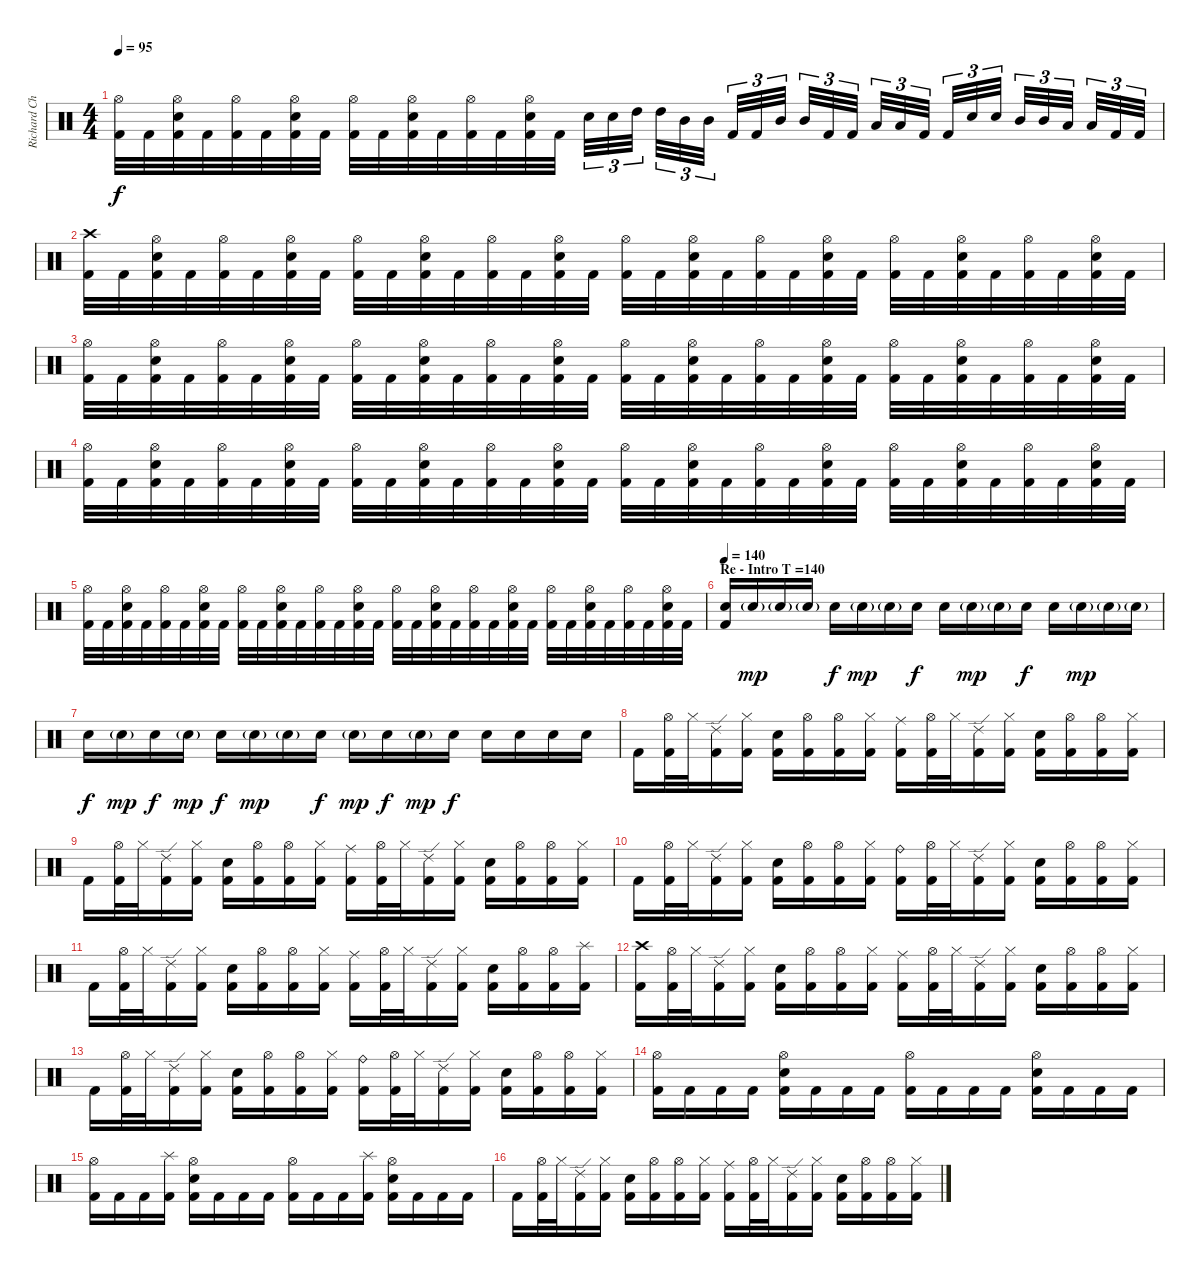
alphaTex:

\track ("Richard Christy" "Richard Ch") {instrument percussion}
\staff {score}
\articulation defaults
\ts (4 4)
\tempo 95
\clef neutral
\ks c
("Hi-Hat (open)" "Kick (hit) 2").32{dy f} "Kick (hit) 2".32 ("Hi-Hat (open)" "Electric Snare (hit)" "Kick (hit) 2").32 "Kick (hit) 2".32 ("Hi-Hat (open)" "Kick (hit) 2").32 "Kick (hit) 2".32 ("Hi-Hat (open)" "Electric Snare (hit)" "Kick (hit) 2").32 "Kick (hit) 2".32 ("Hi-Hat (open)" "Kick (hit) 2").32 "Kick (hit) 2".32 ("Hi-Hat (open)" "Electric Snare (hit)" "Kick (hit) 2").32 "Kick (hit) 2".32 ("Hi-Hat (open)" "Kick (hit) 2").32 "Kick (hit) 2".32 ("Hi-Hat (open)" "Electric Snare (hit)" "Kick (hit) 2").32 "Kick (hit) 2".32 "Electric Snare (hit)".32{tu (3 2)} "Electric Snare (hit)".32{tu (3 2)} "High Tom (hit)".32{tu (3 2)} "High Tom (hit)".32{tu (3 2)} "Mid Tom (hit)".32{tu (3 2)} "Mid Tom (hit)".32{tu (3 2)} "Kick (hit) 2".32{tu (3 2)} "Kick (hit) 2".32{tu (3 2)} "Mid Tom (hit)".32{tu (3 2)} "Mid Tom (hit)".32{tu (3 2)} "Kick (hit) 2".32{tu (3 2)} "Kick (hit) 2".32{tu (3 2)} "Low Tom (hit)".32{tu (3 2)} "Low Tom (hit)".32{tu (3 2)} "Kick (hit) 2".32{tu (3 2)} "Kick (hit) 2".32{tu (3 2)} "Electric Snare (hit)".32{tu (3 2)} "Electric Snare (hit)".32{tu (3 2)} "Mid Tom (hit)".32{tu (3 2)} "Mid Tom (hit)".32{tu (3 2)} "Low Tom (hit)".32{tu (3 2)} "Low Tom (hit)".32{tu (3 2)} "Kick (hit) 2".32{tu (3 2)} "Kick (hit) 2".32{tu (3 2)} |
("Crash high (hit)" "Kick (hit) 2").32 "Kick (hit) 2".32 ("Hi-Hat (open)" "Electric Snare (hit)" "Kick (hit) 2").32 "Kick (hit) 2".32 ("Hi-Hat (open)" "Kick (hit) 2").32 "Kick (hit) 2".32 ("Hi-Hat (open)" "Electric Snare (hit)" "Kick (hit) 2").32 "Kick (hit) 2".32 ("Hi-Hat (open)" "Kick (hit) 2").32 "Kick (hit) 2".32 ("Hi-Hat (open)" "Electric Snare (hit)" "Kick (hit) 2").32 "Kick (hit) 2".32 ("Hi-Hat (open)" "Kick (hit) 2").32 "Kick (hit) 2".32 ("Hi-Hat (open)" "Electric Snare (hit)" "Kick (hit) 2").32 "Kick (hit) 2".32 ("Hi-Hat (open)" "Kick (hit) 2").32 "Kick (hit) 2".32 ("Hi-Hat (open)" "Electric Snare (hit)" "Kick (hit) 2").32 "Kick (hit) 2".32 ("Hi-Hat (open)" "Kick (hit) 2").32 "Kick (hit) 2".32 ("Hi-Hat (open)" "Electric Snare (hit)" "Kick (hit) 2").32 "Kick (hit) 2".32 ("Hi-Hat (open)" "Kick (hit) 2").32 "Kick (hit) 2".32 ("Hi-Hat (open)" "Electric Snare (hit)" "Kick (hit) 2").32 "Kick (hit) 2".32 ("Hi-Hat (open)" "Kick (hit) 2").32 "Kick (hit) 2".32 ("Hi-Hat (open)" "Electric Snare (hit)" "Kick (hit) 2").32 "Kick (hit) 2".32 |
("Hi-Hat (open)" "Kick (hit) 2").32 "Kick (hit) 2".32 ("Hi-Hat (open)" "Electric Snare (hit)" "Kick (hit) 2").32 "Kick (hit) 2".32 ("Hi-Hat (open)" "Kick (hit) 2").32 "Kick (hit) 2".32 ("Hi-Hat (open)" "Electric Snare (hit)" "Kick (hit) 2").32 "Kick (hit) 2".32 ("Hi-Hat (open)" "Kick (hit) 2").32 "Kick (hit) 2".32 ("Hi-Hat (open)" "Electric Snare (hit)" "Kick (hit) 2").32 "Kick (hit) 2".32 ("Hi-Hat (open)" "Kick (hit) 2").32 "Kick (hit) 2".32 ("Hi-Hat (open)" "Electric Snare (hit)" "Kick (hit) 2").32 "Kick (hit) 2".32 ("Hi-Hat (open)" "Kick (hit) 2").32 "Kick (hit) 2".32 ("Hi-Hat (open)" "Electric Snare (hit)" "Kick (hit) 2").32 "Kick (hit) 2".32 ("Hi-Hat (open)" "Kick (hit) 2").32 "Kick (hit) 2".32 ("Hi-Hat (open)" "Electric Snare (hit)" "Kick (hit) 2").32 "Kick (hit) 2".32 ("Hi-Hat (open)" "Kick (hit) 2").32 "Kick (hit) 2".32 ("Hi-Hat (open)" "Electric Snare (hit)" "Kick (hit) 2").32 "Kick (hit) 2".32 ("Hi-Hat (open)" "Kick (hit) 2").32 "Kick (hit) 2".32 ("Hi-Hat (open)" "Electric Snare (hit)" "Kick (hit) 2").32 "Kick (hit) 2".32 |
("Hi-Hat (open)" "Kick (hit) 2").32 "Kick (hit) 2".32 ("Hi-Hat (open)" "Electric Snare (hit)" "Kick (hit) 2").32 "Kick (hit) 2".32 ("Hi-Hat (open)" "Kick (hit) 2").32 "Kick (hit) 2".32 ("Hi-Hat (open)" "Electric Snare (hit)" "Kick (hit) 2").32 "Kick (hit) 2".32 ("Hi-Hat (open)" "Kick (hit) 2").32 "Kick (hit) 2".32 ("Hi-Hat (open)" "Electric Snare (hit)" "Kick (hit) 2").32 "Kick (hit) 2".32 ("Hi-Hat (open)" "Kick (hit) 2").32 "Kick (hit) 2".32 ("Hi-Hat (open)" "Electric Snare (hit)" "Kick (hit) 2").32 "Kick (hit) 2".32 ("Hi-Hat (open)" "Kick (hit) 2").32 "Kick (hit) 2".32 ("Hi-Hat (open)" "Electric Snare (hit)" "Kick (hit) 2").32 "Kick (hit) 2".32 ("Hi-Hat (open)" "Kick (hit) 2").32 "Kick (hit) 2".32 ("Hi-Hat (open)" "Electric Snare (hit)" "Kick (hit) 2").32 "Kick (hit) 2".32 ("Hi-Hat (open)" "Kick (hit) 2").32 "Kick (hit) 2".32 ("Hi-Hat (open)" "Electric Snare (hit)" "Kick (hit) 2").32 "Kick (hit) 2".32 ("Hi-Hat (open)" "Kick (hit) 2").32 "Kick (hit) 2".32 ("Hi-Hat (open)" "Electric Snare (hit)" "Kick (hit) 2").32 "Kick (hit) 2".32 |
("Hi-Hat (open)" "Kick (hit) 2").32 "Kick (hit) 2".32 ("Hi-Hat (open)" "Electric Snare (hit)" "Kick (hit) 2").32 "Kick (hit) 2".32 ("Hi-Hat (open)" "Kick (hit) 2").32 "Kick (hit) 2".32 ("Hi-Hat (open)" "Electric Snare (hit)" "Kick (hit) 2").32 "Kick (hit) 2".32 ("Hi-Hat (open)" "Kick (hit) 2").32 "Kick (hit) 2".32 ("Hi-Hat (open)" "Electric Snare (hit)" "Kick (hit) 2").32 "Kick (hit) 2".32 ("Hi-Hat (open)" "Kick (hit) 2").32 "Kick (hit) 2".32 ("Hi-Hat (open)" "Electric Snare (hit)" "Kick (hit) 2").32 "Kick (hit) 2".32 ("Hi-Hat (open)" "Kick (hit) 2").32 "Kick (hit) 2".32 ("Hi-Hat (open)" "Electric Snare (hit)" "Kick (hit) 2").32 "Kick (hit) 2".32 ("Hi-Hat (open)" "Kick (hit) 2").32 "Kick (hit) 2".32 ("Hi-Hat (open)" "Electric Snare (hit)" "Kick (hit) 2").32 "Kick (hit) 2".32 ("Hi-Hat (open)" "Kick (hit) 2").32 "Kick (hit) 2".32 ("Hi-Hat (open)" "Electric Snare (hit)" "Kick (hit) 2").32 "Kick (hit) 2".32 ("Hi-Hat (open)" "Kick (hit) 2").32 "Kick (hit) 2".32 ("Hi-Hat (open)" "Electric Snare (hit)" "Kick (hit) 2").32 "Kick (hit) 2".32 |
\section ("" "Re - Intro T =140")
\tempo 140
("Electric Snare (hit)" "Kick (hit) 2").16 "Electric Snare (hit)"{g}.16{dy mp} "Electric Snare (hit)"{g}.16 "Electric Snare (hit)"{g}.16 "Electric Snare (hit)".16{dy f} "Electric Snare (hit)"{g}.16{dy mp} "Electric Snare (hit)"{g}.16 "Electric Snare (hit)".16{dy f} "Electric Snare (hit)".16 "Electric Snare (hit)"{g}.16{dy mp} "Electric Snare (hit)"{g}.16 "Electric Snare (hit)".16{dy f} "Electric Snare (hit)".16 "Electric Snare (hit)"{g}.16{dy mp} "Electric Snare (hit)"{g}.16 "Electric Snare (hit)"{g}.16 |
"Electric Snare (hit)".16{dy f} "Electric Snare (hit)"{g}.16{dy mp} "Electric Snare (hit)".16{dy f} "Electric Snare (hit)"{g}.16{dy mp} "Electric Snare (hit)".16{dy f} "Electric Snare (hit)"{g}.16{dy mp} "Electric Snare (hit)"{g}.16 "Electric Snare (hit)".16{dy f} "Electric Snare (hit)"{g}.16{dy mp} "Electric Snare (hit)".16{dy f} "Electric Snare (hit)"{g}.16{dy mp} "Electric Snare (hit)".16{dy f} "Electric Snare (hit)".16 "Electric Snare (hit)".16 "Electric Snare (hit)".16 "Electric Snare (hit)".16 |
"Kick (hit) 2".16 ("Hi-Hat (open)" "Kick (hit) 2").32 "Hi-Hat (closed)".32 ("Ride (edge) 2" "Kick (hit) 2").16 ("Hi-Hat (closed)" "Kick (hit) 2").16 ("Electric Snare (hit)" "Kick (hit) 2").16 ("Hi-Hat (open)" "Kick (hit) 2").16 ("Hi-Hat (open)" "Kick (hit) 2").16 ("Hi-Hat (closed)" "Kick (hit) 2").16 ("Ride (middle)" "Kick (hit) 2").16 ("Hi-Hat (open)" "Kick (hit) 2").32 "Hi-Hat (closed)".32 ("Ride (edge) 2" "Kick (hit) 2").16 ("Hi-Hat (closed)" "Kick (hit) 2").16 ("Electric Snare (hit)" "Kick (hit) 2").16 ("Hi-Hat (open)" "Kick (hit) 2").16 ("Hi-Hat (open)" "Kick (hit) 2").16 ("Hi-Hat (closed)" "Kick (hit) 2").16 |
"Kick (hit) 2".16 ("Hi-Hat (open)" "Kick (hit) 2").32 "Hi-Hat (closed)".32 ("Ride (edge) 2" "Kick (hit) 2").16 ("Hi-Hat (closed)" "Kick (hit) 2").16 ("Electric Snare (hit)" "Kick (hit) 2").16 ("Hi-Hat (open)" "Kick (hit) 2").16 ("Hi-Hat (open)" "Kick (hit) 2").16 ("Hi-Hat (closed)" "Kick (hit) 2").16 ("Ride (middle)" "Kick (hit) 2").16 ("Hi-Hat (open)" "Kick (hit) 2").32 "Hi-Hat (closed)".32 ("Ride (edge) 2" "Kick (hit) 2").16 ("Hi-Hat (closed)" "Kick (hit) 2").16 ("Electric Snare (hit)" "Kick (hit) 2").16 ("Hi-Hat (open)" "Kick (hit) 2").16 ("Hi-Hat (open)" "Kick (hit) 2").16 ("Hi-Hat (closed)" "Kick (hit) 2").16 |
"Kick (hit) 2".16 ("Hi-Hat (open)" "Kick (hit) 2").32 "Hi-Hat (closed)".32 ("Ride (edge) 2" "Kick (hit) 2").16 ("Hi-Hat (closed)" "Kick (hit) 2").16 ("Electric Snare (hit)" "Kick (hit) 2").16 ("Hi-Hat (open)" "Kick (hit) 2").16 ("Hi-Hat (open)" "Kick (hit) 2").16 ("Hi-Hat (closed)" "Kick (hit) 2").16 ("Ride (bell)" "Kick (hit) 2").16 ("Hi-Hat (open)" "Kick (hit) 2").32 "Hi-Hat (closed)".32 ("Ride (edge) 2" "Kick (hit) 2").16 ("Hi-Hat (closed)" "Kick (hit) 2").16 ("Electric Snare (hit)" "Kick (hit) 2").16 ("Hi-Hat (open)" "Kick (hit) 2").16 ("Hi-Hat (open)" "Kick (hit) 2").16 ("Hi-Hat (closed)" "Kick (hit) 2").16 |
"Kick (hit) 2".16 ("Hi-Hat (open)" "Kick (hit) 2").32 "Hi-Hat (closed)".32 ("Ride (edge) 2" "Kick (hit) 2").16 ("Hi-Hat (closed)" "Kick (hit) 2").16 ("Electric Snare (hit)" "Kick (hit) 2").16 ("Hi-Hat (open)" "Kick (hit) 2").16 ("Hi-Hat (open)" "Kick (hit) 2").16 ("Hi-Hat (closed)" "Kick (hit) 2").16 ("Ride (middle)" "Kick (hit) 2").16 ("Hi-Hat (open)" "Kick (hit) 2").32 "Hi-Hat (closed)".32 ("Ride (edge) 2" "Kick (hit) 2").16 ("Hi-Hat (closed)" "Kick (hit) 2").16 ("Electric Snare (hit)" "Kick (hit) 2").16 ("Hi-Hat (open)" "Kick (hit) 2").16 ("Hi-Hat (open)" "Kick (hit) 2").16 ("Splash (hit)" "Kick (hit) 2").16 |
("Crash high (hit)" "Kick (hit) 2").16 ("Hi-Hat (open)" "Kick (hit) 2").32 "Hi-Hat (closed)".32 ("Ride (edge) 2" "Kick (hit) 2").16 ("Hi-Hat (closed)" "Kick (hit) 2").16 ("Electric Snare (hit)" "Kick (hit) 2").16 ("Hi-Hat (open)" "Kick (hit) 2").16 ("Hi-Hat (open)" "Kick (hit) 2").16 ("Hi-Hat (closed)" "Kick (hit) 2").16 ("Ride (middle)" "Kick (hit) 2").16 ("Hi-Hat (open)" "Kick (hit) 2").32 "Hi-Hat (closed)".32 ("Ride (edge) 2" "Kick (hit) 2").16 ("Hi-Hat (closed)" "Kick (hit) 2").16 ("Electric Snare (hit)" "Kick (hit) 2").16 ("Hi-Hat (open)" "Kick (hit) 2").16 ("Hi-Hat (open)" "Kick (hit) 2").16 ("Hi-Hat (closed)" "Kick (hit) 2").16 |
"Kick (hit) 2".16 ("Hi-Hat (open)" "Kick (hit) 2").32 "Hi-Hat (closed)".32 ("Ride (edge) 2" "Kick (hit) 2").16 ("Hi-Hat (closed)" "Kick (hit) 2").16 ("Electric Snare (hit)" "Kick (hit) 2").16 ("Hi-Hat (open)" "Kick (hit) 2").16 ("Hi-Hat (open)" "Kick (hit) 2").16 ("Hi-Hat (closed)" "Kick (hit) 2").16 ("Ride (bell)" "Kick (hit) 2").16 ("Hi-Hat (open)" "Kick (hit) 2").32 "Hi-Hat (closed)".32 ("Ride (edge) 2" "Kick (hit) 2").16 ("Hi-Hat (closed)" "Kick (hit) 2").16 ("Electric Snare (hit)" "Kick (hit) 2").16 ("Hi-Hat (open)" "Kick (hit) 2").16 ("Hi-Hat (open)" "Kick (hit) 2").16 ("Hi-Hat (closed)" "Kick (hit) 2").16 |
("Hi-Hat (open)" "Kick (hit) 2").16 "Kick (hit) 2".16 "Kick (hit) 2".16 "Kick (hit) 2".16 ("Hi-Hat (open)" "Electric Snare (hit)" "Kick (hit) 2").16 "Kick (hit) 2".16 "Kick (hit) 2".16 "Kick (hit) 2".16 ("Hi-Hat (open)" "Kick (hit) 2").16 "Kick (hit) 2".16 "Kick (hit) 2".16 "Kick (hit) 2".16 ("Hi-Hat (open)" "Electric Snare (hit)" "Kick (hit) 2").16 "Kick (hit) 2".16 "Kick (hit) 2".16 "Kick (hit) 2".16 |
("Hi-Hat (open)" "Kick (hit) 2").16 "Kick (hit) 2".16 "Kick (hit) 2".16 ("Splash (hit)" "Kick (hit) 2").16 ("Hi-Hat (open)" "Electric Snare (hit)" "Kick (hit) 2").16 "Kick (hit) 2".16 "Kick (hit) 2".16 "Kick (hit) 2".16 ("Hi-Hat (open)" "Kick (hit) 2").16 "Kick (hit) 2".16 "Kick (hit) 2".16 ("Splash (hit)" "Kick (hit) 2").16 ("Hi-Hat (open)" "Electric Snare (hit)" "Kick (hit) 2").16 "Kick (hit) 2".16 "Kick (hit) 2".16 "Kick (hit) 2".16 |
"Kick (hit) 2".16 ("Hi-Hat (open)" "Kick (hit) 2").32 "Hi-Hat (closed)".32 ("Ride (edge) 2" "Kick (hit) 2").16 ("Hi-Hat (closed)" "Kick (hit) 2").16 ("Electric Snare (hit)" "Kick (hit) 2").16 ("Hi-Hat (open)" "Kick (hit) 2").16 ("Hi-Hat (open)" "Kick (hit) 2").16 ("Hi-Hat (closed)" "Kick (hit) 2").16 ("Ride (middle)" "Kick (hit) 2").16 ("Hi-Hat (open)" "Kick (hit) 2").32 "Hi-Hat (closed)".32 ("Ride (edge) 2" "Kick (hit) 2").16 ("Hi-Hat (closed)" "Kick (hit) 2").16 ("Electric Snare (hit)" "Kick (hit) 2").16 ("Hi-Hat (open)" "Kick (hit) 2").16 ("Hi-Hat (open)" "Kick (hit) 2").16 ("Hi-Hat (closed)" "Kick (hit) 2").16
